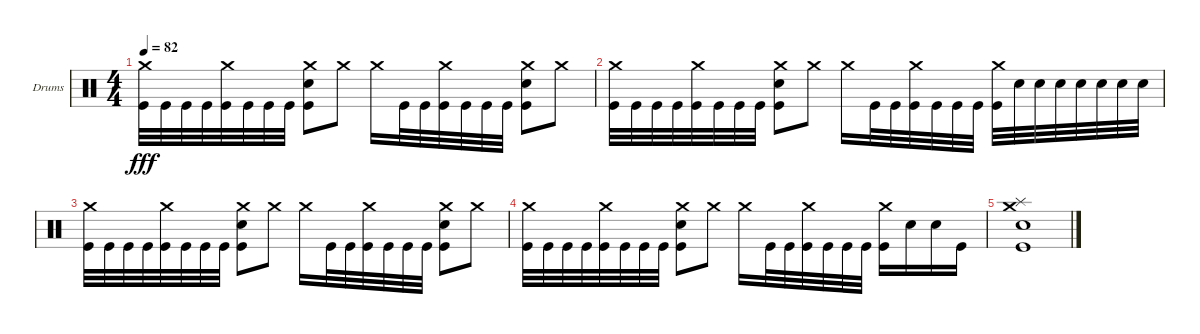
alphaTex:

\defaultSystemsLayout 4
\bracketExtendMode groupsimilarinstruments
\firstSystemTrackNameOrientation horizontal
\otherSystemsTrackNameOrientation horizontal
\track ("Drumkit" "Drums") {instrument percussion}
\staff {score}
\articulation defaults
\ts (4 4)
\tempo 82
\clef neutral
\ks c
("Kick (hit)" "Crash medium (hit)").32{dy fff} "Kick (hit)".32 "Kick (hit)".32 "Kick (hit)".32 ("Kick (hit)" "Crash medium (hit)").32 "Kick (hit)".32 "Kick (hit)".32 "Kick (hit)".32 ("Kick (hit)" "Snare (hit) 2" "Crash medium (hit)").8 "Crash medium (hit)".8 "Crash medium (hit)".16 "Kick (hit)".32 "Kick (hit)".32 ("Kick (hit)" "Crash medium (hit)").32 "Kick (hit)".32 "Kick (hit)".32 "Kick (hit)".32 ("Kick (hit)" "Snare (hit) 2" "Crash medium (hit)").8 "Crash medium (hit)".8 |
("Kick (hit)" "Crash medium (hit)").32 "Kick (hit)".32 "Kick (hit)".32 "Kick (hit)".32 ("Kick (hit)" "Crash medium (hit)").32 "Kick (hit)".32 "Kick (hit)".32 "Kick (hit)".32 ("Kick (hit)" "Snare (hit) 2" "Crash medium (hit)").8 "Crash medium (hit)".8 "Crash medium (hit)".16 "Kick (hit)".32 "Kick (hit)".32 ("Kick (hit)" "Crash medium (hit)").32 "Kick (hit)".32 "Kick (hit)".32 "Kick (hit)".32 ("Kick (hit)" "Crash medium (hit)").32 "Snare (hit) 2".32 "Snare (hit) 2".32 "Snare (hit) 2".32 "Snare (hit) 2".32 "Snare (hit) 2".32 "Snare (hit) 2".32 "Snare (hit) 2".32 |
("Kick (hit)" "Crash medium (hit)").32 "Kick (hit)".32 "Kick (hit)".32 "Kick (hit)".32 ("Kick (hit)" "Crash medium (hit)").32 "Kick (hit)".32 "Kick (hit)".32 "Kick (hit)".32 ("Kick (hit)" "Snare (hit) 2" "Crash medium (hit)").8 "Crash medium (hit)".8 "Crash medium (hit)".16 "Kick (hit)".32 "Kick (hit)".32 ("Kick (hit)" "Crash medium (hit)").32 "Kick (hit)".32 "Kick (hit)".32 "Kick (hit)".32 ("Kick (hit)" "Snare (hit) 2" "Crash medium (hit)").8 "Crash medium (hit)".8 |
("Kick (hit)" "Crash medium (hit)").32 "Kick (hit)".32 "Kick (hit)".32 "Kick (hit)".32 ("Kick (hit)" "Crash medium (hit)").32 "Kick (hit)".32 "Kick (hit)".32 "Kick (hit)".32 ("Kick (hit)" "Snare (hit) 2" "Crash medium (hit)").8 "Crash medium (hit)".8 "Crash medium (hit)".16 "Kick (hit)".32 "Kick (hit)".32 ("Kick (hit)" "Crash medium (hit)").32 "Kick (hit)".32 "Kick (hit)".32 "Kick (hit)".32 ("Kick (hit)" "Crash medium (hit)").16 "Snare (hit) 2".16 "Snare (hit) 2".16 "Kick (hit)".16 |
("Kick (hit)" "Snare (hit) 2" "Crash medium (hit)" "Splash (hit)").1
